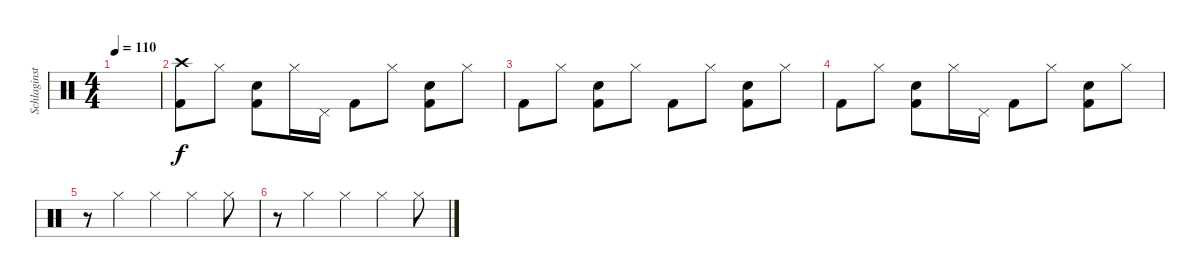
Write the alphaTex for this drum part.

\track ("Schlaginstrumente - Auswahl" "Schlaginst") {instrument percussion}
\staff {score}
\articulation defaults
\ts (4 4)
\tempo 110
\clef neutral
\ks c
|
("Crash high (hit)" "Kick (hit) 2").8 "Hi-Hat (closed)".8 ("Snare (hit) 2" "Kick (hit) 2").8 "Hi-Hat (closed)".16 "Pedal Hi-Hat (hit)".16 "Kick (hit) 2".8 "Hi-Hat (closed)".8 ("Snare (hit) 2" "Kick (hit) 2").8 "Hi-Hat (closed)".8 |
"Kick (hit) 2".8 "Hi-Hat (closed)".8 ("Snare (hit) 2" "Kick (hit) 2").8 "Hi-Hat (closed)".8 "Kick (hit) 2".8 "Hi-Hat (closed)".8 ("Snare (hit) 2" "Kick (hit) 2").8 "Hi-Hat (closed)".8 |
"Kick (hit) 2".8 "Hi-Hat (closed)".8 ("Snare (hit) 2" "Kick (hit) 2").8 "Hi-Hat (closed)".16 "Pedal Hi-Hat (hit)".16 "Kick (hit) 2".8 "Hi-Hat (closed)".8 ("Snare (hit) 2" "Kick (hit) 2").8 "Hi-Hat (closed)".8 |
r.8 "Hi-Hat (closed)".4 "Hi-Hat (closed)".4 "Hi-Hat (closed)".4 "Hi-Hat (closed)".8 |
r.8 "Hi-Hat (closed)".4 "Hi-Hat (closed)".4 "Hi-Hat (closed)".4 "Hi-Hat (closed)".8
